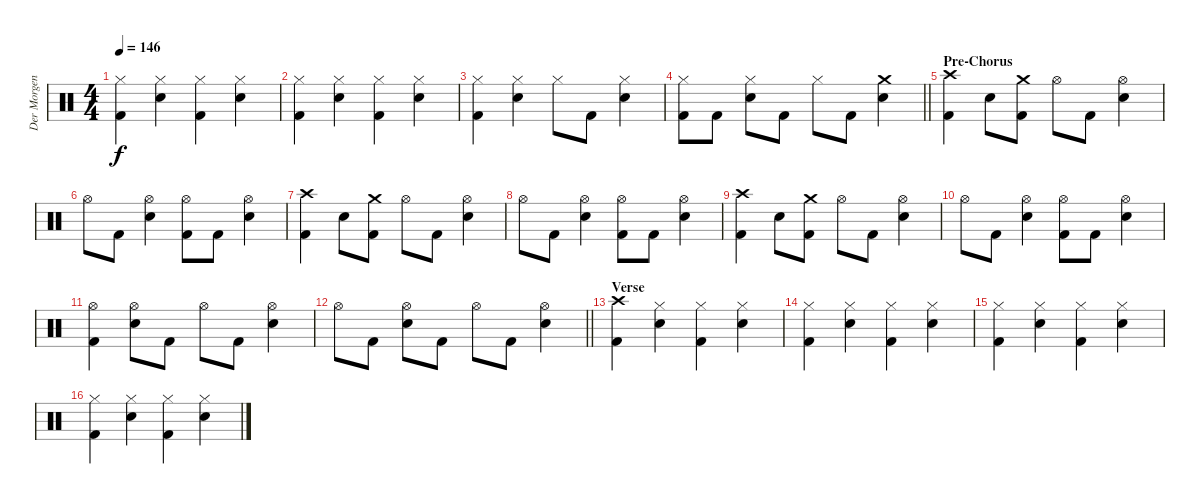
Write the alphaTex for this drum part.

\track ("Der Morgenstern" "Der Morgen") {instrument percussion}
\staff {score}
\articulation defaults
\ts (4 4)
\tempo 146
\clef neutral
\ks c
("Hi-Hat (closed)" "Kick (hit) 2").4{dy f} ("Hi-Hat (closed)" "Electric Snare (hit)").4 ("Hi-Hat (closed)" "Kick (hit) 2").4 ("Hi-Hat (closed)" "Electric Snare (hit)").4 |
("Hi-Hat (closed)" "Kick (hit) 2").4 ("Hi-Hat (closed)" "Electric Snare (hit)").4 ("Hi-Hat (closed)" "Kick (hit) 2").4 ("Hi-Hat (closed)" "Electric Snare (hit)").4 |
("Hi-Hat (closed)" "Kick (hit) 2").4 ("Hi-Hat (closed)" "Electric Snare (hit)").4 "Hi-Hat (closed)".8 "Kick (hit) 2".8 ("Hi-Hat (closed)" "Electric Snare (hit)").4 |
\barLineRight lightlight
("Hi-Hat (closed)" "Kick (hit) 2").8 "Kick (hit) 2".8 ("Hi-Hat (closed)" "Electric Snare (hit)").8 "Kick (hit) 2".8 "Hi-Hat (closed)".8 "Kick (hit) 2".8 ("Crash medium (hit)" "Electric Snare (hit)").4 |
\section ("" "Pre-Chorus")
("Crash high (hit)" "Kick (hit) 2").4 "Electric Snare (hit)".8 ("Crash medium (hit)" "Kick (hit) 2").8 "Hi-Hat (open)".8 "Kick (hit) 2".8 ("Hi-Hat (open)" "Electric Snare (hit)").4 |
"Hi-Hat (open)".8 "Kick (hit) 2".8 ("Hi-Hat (open)" "Electric Snare (hit)").4 ("Hi-Hat (open)" "Kick (hit) 2").8 "Kick (hit) 2".8 ("Hi-Hat (open)" "Electric Snare (hit)").4 |
("Crash high (hit)" "Kick (hit) 2").4 "Electric Snare (hit)".8 ("Crash medium (hit)" "Kick (hit) 2").8 "Hi-Hat (open)".8 "Kick (hit) 2".8 ("Hi-Hat (open)" "Electric Snare (hit)").4 |
"Hi-Hat (open)".8 "Kick (hit) 2".8 ("Hi-Hat (open)" "Electric Snare (hit)").4 ("Hi-Hat (open)" "Kick (hit) 2").8 "Kick (hit) 2".8 ("Hi-Hat (open)" "Electric Snare (hit)").4 |
("Crash high (hit)" "Kick (hit) 2").4 "Electric Snare (hit)".8 ("Crash medium (hit)" "Kick (hit) 2").8 "Hi-Hat (open)".8 "Kick (hit) 2".8 ("Hi-Hat (open)" "Electric Snare (hit)").4 |
"Hi-Hat (open)".8 "Kick (hit) 2".8 ("Hi-Hat (open)" "Electric Snare (hit)").4 ("Hi-Hat (open)" "Kick (hit) 2").8 "Kick (hit) 2".8 ("Hi-Hat (open)" "Electric Snare (hit)").4 |
("Hi-Hat (open)" "Kick (hit) 2").4 ("Hi-Hat (open)" "Electric Snare (hit)").8 "Kick (hit) 2".8 "Hi-Hat (open)".8 "Kick (hit) 2".8 ("Hi-Hat (open)" "Electric Snare (hit)").4 |
\barLineRight lightlight "Hi-Hat (open)".8 "Kick (hit) 2".8
("Hi-Hat (open)" "Electric Snare (hit)").8 "Kick (hit) 2".8 "Hi-Hat (open)".8 "Kick (hit) 2".8 ("Hi-Hat (open)" "Electric Snare (hit)").4 |
\section ("" "Verse")
("Crash high (hit)" "Kick (hit) 2").4 ("Hi-Hat (closed)" "Electric Snare (hit)").4 ("Hi-Hat (closed)" "Kick (hit) 2").4 ("Hi-Hat (closed)" "Electric Snare (hit)").4 |
("Hi-Hat (closed)" "Kick (hit) 2").4 ("Hi-Hat (closed)" "Electric Snare (hit)").4 ("Hi-Hat (closed)" "Kick (hit) 2").4 ("Hi-Hat (closed)" "Electric Snare (hit)").4 |
("Hi-Hat (closed)" "Kick (hit) 2").4 ("Hi-Hat (closed)" "Electric Snare (hit)").4 ("Hi-Hat (closed)" "Kick (hit) 2").4 ("Hi-Hat (closed)" "Electric Snare (hit)").4 |
("Hi-Hat (closed)" "Kick (hit) 2").4 ("Hi-Hat (closed)" "Electric Snare (hit)").4 ("Hi-Hat (closed)" "Kick (hit) 2").4 ("Hi-Hat (closed)" "Electric Snare (hit)").4
